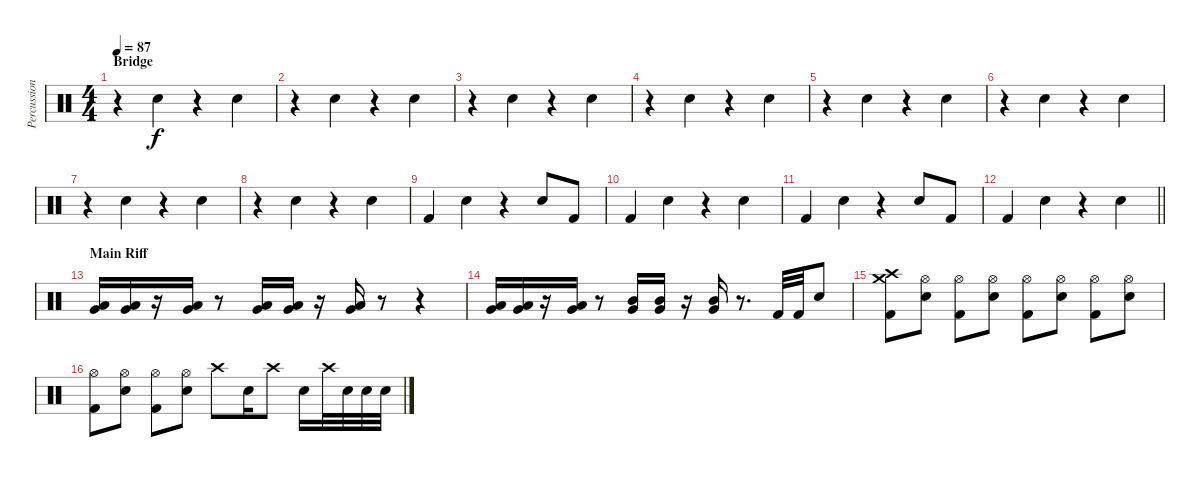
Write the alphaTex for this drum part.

\track ("Percussion" "Percussion") {instrument percussion}
\staff {score}
\articulation defaults
\ts (4 4)
\section ("" "Bridge")
\tempo 87
\clef neutral
\ks c
r.4{dy f} "Electric Snare (hit)".4 r.4 "Electric Snare (hit)".4 |
r.4 "Electric Snare (hit)".4 r.4 "Electric Snare (hit)".4 |
r.4 "Electric Snare (hit)".4 r.4 "Electric Snare (hit)".4 |
r.4 "Electric Snare (hit)".4 r.4 "Electric Snare (hit)".4 |
r.4 "Electric Snare (hit)".4 r.4 "Electric Snare (hit)".4 |
r.4 "Electric Snare (hit)".4 r.4 "Electric Snare (hit)".4 |
r.4 "Electric Snare (hit)".4 r.4 "Electric Snare (hit)".4 |
r.4 "Electric Snare (hit)".4 r.4 "Electric Snare (hit)".4 |
"Kick (hit) 2".4 "Electric Snare (hit)".4 r.4 "Electric Snare (hit)".8 "Kick (hit) 2".8 |
"Kick (hit) 2".4 "Electric Snare (hit)".4 r.4 "Electric Snare (hit)".4 |
"Kick (hit) 2".4 "Electric Snare (hit)".4 r.4 "Electric Snare (hit)".8 "Kick (hit) 2".8 |
\barLineRight lightlight "Kick (hit) 2".4 "Electric Snare (hit)".4
r.4 "Electric Snare (hit)".4 |
\section ("" "Main Riff")
("Very Low Tom (hit)" "Low Tom (hit)").16 ("Very Low Tom (hit)" "Low Tom (hit)").16 r.16 ("Very Low Tom (hit)" "Low Tom (hit)").16 r.8 ("Very Low Tom (hit)" "Low Tom (hit)").16 ("Very Low Tom (hit)" "Low Tom (hit)").16 r.16 ("Very Low Tom (hit)" "Low Tom (hit)").16 r.8 r.4 |
("Very Low Tom (hit)" "Low Tom (hit)").16 ("Very Low Tom (hit)" "Low Tom (hit)").16 r.16 ("Very Low Tom (hit)" "Low Tom (hit)").16 r.8 ("Very Low Tom (hit)" "Mid Tom (hit)").16 ("Very Low Tom (hit)" "Mid Tom (hit)").16 r.16 ("Very Low Tom (hit)" "Mid Tom (hit)").16 r.8{d} "Kick (hit) 2".32 "Kick (hit) 2".32 "Electric Snare (hit)".8 |
("Kick (hit) 2" "Crash high (hit)" "Crash medium (hit)").8 ("Electric Snare (hit)" "Hi-Hat (open)").8 ("Kick (hit) 2" "Hi-Hat (open)").8 ("Electric Snare (hit)" "Hi-Hat (open)").8 ("Kick (hit) 2" "Hi-Hat (open)").8 ("Electric Snare (hit)" "Hi-Hat (open)").8 ("Kick (hit) 2" "Hi-Hat (open)").8 ("Electric Snare (hit)" "Hi-Hat (open)").8 |
("Kick (hit) 2" "Hi-Hat (open)").8 ("Electric Snare (hit)" "Hi-Hat (open)").8 ("Kick (hit) 2" "Hi-Hat (open)").8 ("Electric Snare (hit)" "Hi-Hat (open)").8 "Crash high (hit)".8 "Electric Snare (hit)".16 "Crash high (hit)".8 "Electric Snare (hit)".16 "Crash high (hit)".32 "Electric Snare (hit)".32 "Electric Snare (hit)".32 "Electric Snare (hit)".32
